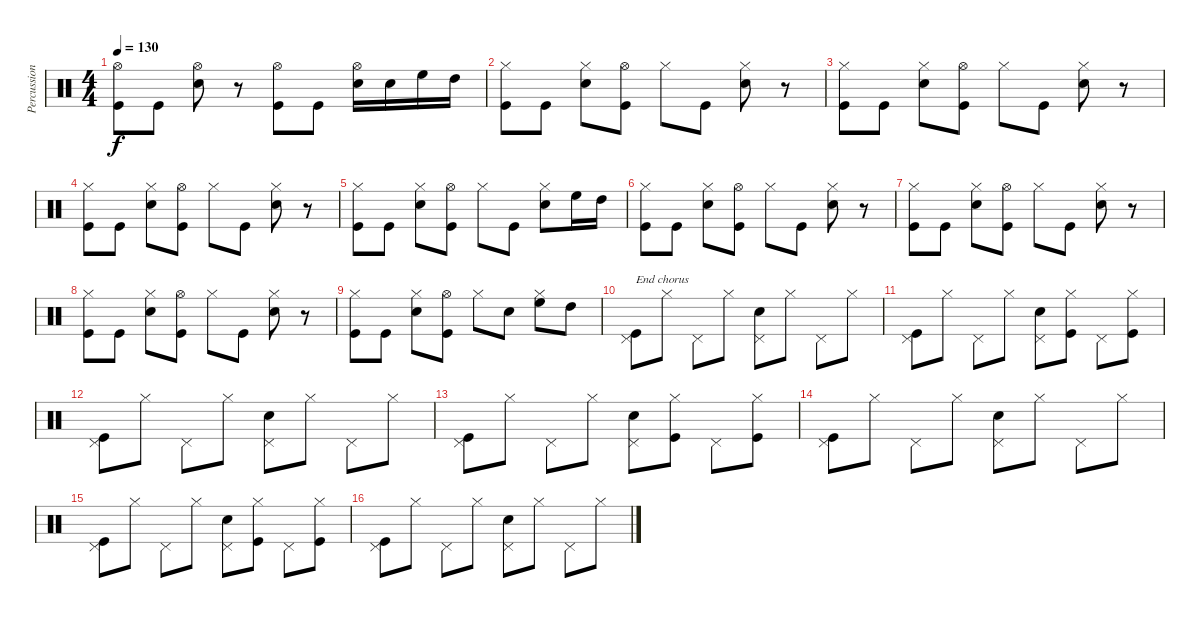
\track ("Percussion" "Percussion") {instrument percussion}
\staff {score}
\articulation defaults
\ts (4 4)
\tempo 130
\clef neutral
\ks c
("Hi-Hat (open)" "Kick (hit)").8{dy f} "Kick (hit)".8 ("Hi-Hat (open)" "Snare (hit) 2").8 r.8 ("Hi-Hat (open)" "Kick (hit)").8 "Kick (hit)".8 ("Hi-Hat (open)" "Snare (hit) 2").16 "Snare (hit) 2".16 "High Floor Tom (hit)".16 "High Tom (hit)".16 |
("Hi-Hat (closed)" "Kick (hit)").8 "Kick (hit)".8 ("Hi-Hat (closed)" "Snare (hit) 2").8 ("Hi-Hat (open)" "Kick (hit)").8 "Hi-Hat (closed)".8 "Kick (hit)".8 ("Hi-Hat (closed)" "Snare (hit) 2").8 r.8 |
("Hi-Hat (closed)" "Kick (hit)").8 "Kick (hit)".8 ("Hi-Hat (closed)" "Snare (hit) 2").8 ("Hi-Hat (open)" "Kick (hit)").8 "Hi-Hat (closed)".8 "Kick (hit)".8 ("Hi-Hat (closed)" "Snare (hit) 2").8 r.8 |
("Hi-Hat (closed)" "Kick (hit)").8 "Kick (hit)".8 ("Hi-Hat (closed)" "Snare (hit) 2").8 ("Hi-Hat (open)" "Kick (hit)").8 "Hi-Hat (closed)".8 "Kick (hit)".8 ("Hi-Hat (closed)" "Snare (hit) 2").8 r.8 |
("Hi-Hat (closed)" "Kick (hit)").8 "Kick (hit)".8 ("Hi-Hat (closed)" "Snare (hit) 2").8 ("Hi-Hat (open)" "Kick (hit)").8 "Hi-Hat (closed)".8 "Kick (hit)".8 ("Hi-Hat (closed)" "Snare (hit) 2").8 "High Floor Tom (hit)".16 "High Tom (hit)".16 |
("Hi-Hat (closed)" "Kick (hit)").8 "Kick (hit)".8 ("Hi-Hat (closed)" "Snare (hit) 2").8 ("Hi-Hat (open)" "Kick (hit)").8 "Hi-Hat (closed)".8 "Kick (hit)".8 ("Hi-Hat (closed)" "Snare (hit) 2").8 r.8 |
("Hi-Hat (closed)" "Kick (hit)").8 "Kick (hit)".8 ("Hi-Hat (closed)" "Snare (hit) 2").8 ("Hi-Hat (open)" "Kick (hit)").8 "Hi-Hat (closed)".8 "Kick (hit)".8 ("Hi-Hat (closed)" "Snare (hit) 2").8 r.8 |
("Hi-Hat (closed)" "Kick (hit)").8 "Kick (hit)".8 ("Hi-Hat (closed)" "Snare (hit) 2").8 ("Hi-Hat (open)" "Kick (hit)").8 "Hi-Hat (closed)".8 "Kick (hit)".8 ("Hi-Hat (closed)" "Snare (hit) 2").8 r.8 |
("Hi-Hat (closed)" "Kick (hit)").8 "Kick (hit)".8 ("Hi-Hat (closed)" "Snare (hit) 2").8 ("Hi-Hat (open)" "Kick (hit)").8 "Hi-Hat (closed)".8 "Snare (hit) 2".8 ("Hi-Hat (closed)" "High Floor Tom (hit)").8 "High Tom (hit)".8 |
("Pedal Hi-Hat (hit)" "Kick (hit)").8{txt "End chorus"} "Hi-Hat (closed)".8 "Pedal Hi-Hat (hit)".8 "Hi-Hat (closed)".8 ("Pedal Hi-Hat (hit)" "Snare (hit) 2").8 "Hi-Hat (closed)".8 "Pedal Hi-Hat (hit)".8 "Hi-Hat (closed)".8 |
("Pedal Hi-Hat (hit)" "Kick (hit)").8 "Hi-Hat (closed)".8 "Pedal Hi-Hat (hit)".8 "Hi-Hat (closed)".8 ("Pedal Hi-Hat (hit)" "Snare (hit) 2").8 ("Hi-Hat (closed)" "Kick (hit)").8 "Pedal Hi-Hat (hit)".8 ("Hi-Hat (closed)" "Kick (hit)").8 |
("Pedal Hi-Hat (hit)" "Kick (hit)").8 "Hi-Hat (closed)".8 "Pedal Hi-Hat (hit)".8 "Hi-Hat (closed)".8 ("Pedal Hi-Hat (hit)" "Snare (hit) 2").8 "Hi-Hat (closed)".8 "Pedal Hi-Hat (hit)".8 "Hi-Hat (closed)".8 |
("Pedal Hi-Hat (hit)" "Kick (hit)").8 "Hi-Hat (closed)".8 "Pedal Hi-Hat (hit)".8 "Hi-Hat (closed)".8 ("Pedal Hi-Hat (hit)" "Snare (hit) 2").8 ("Hi-Hat (closed)" "Kick (hit)").8 "Pedal Hi-Hat (hit)".8 ("Hi-Hat (closed)" "Kick (hit)").8 |
("Pedal Hi-Hat (hit)" "Kick (hit)").8 "Hi-Hat (closed)".8 "Pedal Hi-Hat (hit)".8 "Hi-Hat (closed)".8 ("Pedal Hi-Hat (hit)" "Snare (hit) 2").8 "Hi-Hat (closed)".8 "Pedal Hi-Hat (hit)".8 "Hi-Hat (closed)".8 |
("Pedal Hi-Hat (hit)" "Kick (hit)").8 "Hi-Hat (closed)".8 "Pedal Hi-Hat (hit)".8 "Hi-Hat (closed)".8 ("Pedal Hi-Hat (hit)" "Snare (hit) 2").8 ("Hi-Hat (closed)" "Kick (hit)").8 "Pedal Hi-Hat (hit)".8 ("Hi-Hat (closed)" "Kick (hit)").8 |
("Pedal Hi-Hat (hit)" "Kick (hit)").8 "Hi-Hat (closed)".8 "Pedal Hi-Hat (hit)".8 "Hi-Hat (closed)".8 ("Pedal Hi-Hat (hit)" "Snare (hit) 2").8 "Hi-Hat (closed)".8 "Pedal Hi-Hat (hit)".8 "Hi-Hat (closed)".8
